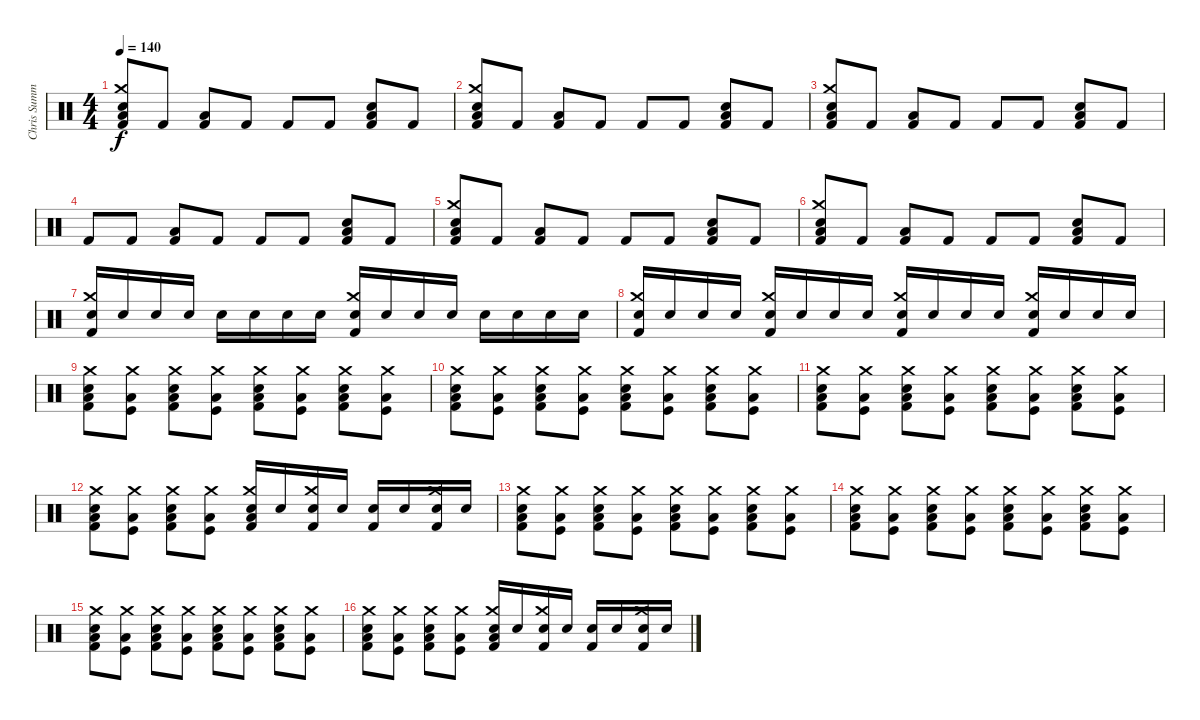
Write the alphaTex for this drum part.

\track ("Chris Summers" "Chris Summ") {instrument percussion}
\staff {score}
\articulation defaults
\ts (4 4)
\tempo 140
\clef neutral
\ks c
("Snare (hit) 2" "Crash medium (hit)" "Low Floor Tom (hit)" "Kick (hit) 2").8{dy f} "Kick (hit) 2".8 ("Low Floor Tom (hit)" "Kick (hit) 2").8 "Kick (hit) 2".8 "Kick (hit) 2".8 "Kick (hit) 2".8 ("Snare (hit) 2" "Low Floor Tom (hit)" "Kick (hit) 2").8 "Kick (hit) 2".8 |
("Snare (hit) 2" "Crash medium (hit)" "Low Floor Tom (hit)" "Kick (hit) 2").8 "Kick (hit) 2".8 ("Low Floor Tom (hit)" "Kick (hit) 2").8 "Kick (hit) 2".8 "Kick (hit) 2".8 "Kick (hit) 2".8 ("Snare (hit) 2" "Low Floor Tom (hit)" "Kick (hit) 2").8 "Kick (hit) 2".8 |
("Snare (hit) 2" "Crash medium (hit)" "Low Floor Tom (hit)" "Kick (hit) 2").8 "Kick (hit) 2".8 ("Low Floor Tom (hit)" "Kick (hit) 2").8 "Kick (hit) 2".8 "Kick (hit) 2".8 "Kick (hit) 2".8 ("Snare (hit) 2" "Low Floor Tom (hit)" "Kick (hit) 2").8 "Kick (hit) 2".8 |
"Kick (hit) 2".8 "Kick (hit) 2".8 ("Low Floor Tom (hit)" "Kick (hit) 2").8 "Kick (hit) 2".8 "Kick (hit) 2".8 "Kick (hit) 2".8 ("Snare (hit) 2" "Low Floor Tom (hit)" "Kick (hit) 2").8 "Kick (hit) 2".8 |
("Snare (hit) 2" "Crash medium (hit)" "Low Floor Tom (hit)" "Kick (hit) 2").8 "Kick (hit) 2".8 ("Low Floor Tom (hit)" "Kick (hit) 2").8 "Kick (hit) 2".8 "Kick (hit) 2".8 "Kick (hit) 2".8 ("Snare (hit) 2" "Low Floor Tom (hit)" "Kick (hit) 2").8 "Kick (hit) 2".8 |
("Snare (hit) 2" "Crash medium (hit)" "Low Floor Tom (hit)" "Kick (hit) 2").8 "Kick (hit) 2".8 ("Low Floor Tom (hit)" "Kick (hit) 2").8 "Kick (hit) 2".8 "Kick (hit) 2".8 "Kick (hit) 2".8 ("Snare (hit) 2" "Low Floor Tom (hit)" "Kick (hit) 2").8 "Kick (hit) 2".8 |
("Crash medium (hit)" "Snare (hit) 2" "Kick (hit) 2").16 "Snare (hit) 2".16 "Snare (hit) 2".16 "Snare (hit) 2".16 "Snare (hit) 2".16 "Snare (hit) 2".16 "Snare (hit) 2".16 "Snare (hit) 2".16 ("Crash medium (hit)" "Snare (hit) 2" "Kick (hit) 2").16 "Snare (hit) 2".16 "Snare (hit) 2".16 "Snare (hit) 2".16 "Snare (hit) 2".16 "Snare (hit) 2".16 "Snare (hit) 2".16 "Snare (hit) 2".16 |
("Crash medium (hit)" "Snare (hit) 2" "Kick (hit) 2").16 "Snare (hit) 2".16 "Snare (hit) 2".16 "Snare (hit) 2".16 ("Crash medium (hit)" "Snare (hit) 2" "Kick (hit) 2").16 "Snare (hit) 2".16 "Snare (hit) 2".16 "Snare (hit) 2".16 ("Crash medium (hit)" "Snare (hit) 2" "Kick (hit) 2").16 "Snare (hit) 2".16 "Snare (hit) 2".16 "Snare (hit) 2".16 ("Crash medium (hit)" "Snare (hit) 2" "Kick (hit) 2").16 "Snare (hit) 2".16 "Snare (hit) 2".16 "Snare (hit) 2".16 |
("Crash medium (hit)" "Snare (hit) 2" "Low Floor Tom (hit)" "Kick (hit) 2").8 ("Crash medium (hit)" "Low Floor Tom (hit)" "Kick (hit)").8 ("Crash medium (hit)" "Snare (hit) 2" "Low Floor Tom (hit)" "Kick (hit) 2").8 ("Crash medium (hit)" "Low Floor Tom (hit)" "Kick (hit)").8 ("Crash medium (hit)" "Snare (hit) 2" "Low Floor Tom (hit)" "Kick (hit) 2").8 ("Crash medium (hit)" "Low Floor Tom (hit)" "Kick (hit)").8 ("Crash medium (hit)" "Snare (hit) 2" "Low Floor Tom (hit)" "Kick (hit) 2").8 ("Crash medium (hit)" "Low Floor Tom (hit)" "Kick (hit)").8 |
("Crash medium (hit)" "Snare (hit) 2" "Low Floor Tom (hit)" "Kick (hit) 2").8 ("Crash medium (hit)" "Low Floor Tom (hit)" "Kick (hit)").8 ("Crash medium (hit)" "Snare (hit) 2" "Low Floor Tom (hit)" "Kick (hit) 2").8 ("Crash medium (hit)" "Low Floor Tom (hit)" "Kick (hit)").8 ("Crash medium (hit)" "Snare (hit) 2" "Low Floor Tom (hit)" "Kick (hit) 2").8 ("Crash medium (hit)" "Low Floor Tom (hit)" "Kick (hit)").8 ("Crash medium (hit)" "Snare (hit) 2" "Low Floor Tom (hit)" "Kick (hit) 2").8 ("Crash medium (hit)" "Low Floor Tom (hit)" "Kick (hit)").8 |
("Crash medium (hit)" "Snare (hit) 2" "Low Floor Tom (hit)" "Kick (hit) 2").8 ("Crash medium (hit)" "Low Floor Tom (hit)" "Kick (hit)").8 ("Crash medium (hit)" "Snare (hit) 2" "Low Floor Tom (hit)" "Kick (hit) 2").8 ("Crash medium (hit)" "Low Floor Tom (hit)" "Kick (hit)").8 ("Crash medium (hit)" "Snare (hit) 2" "Low Floor Tom (hit)" "Kick (hit) 2").8 ("Crash medium (hit)" "Low Floor Tom (hit)" "Kick (hit)").8 ("Crash medium (hit)" "Snare (hit) 2" "Low Floor Tom (hit)" "Kick (hit) 2").8 ("Crash medium (hit)" "Low Floor Tom (hit)" "Kick (hit)").8 |
("Crash medium (hit)" "Snare (hit) 2" "Low Floor Tom (hit)" "Kick (hit) 2").8 ("Crash medium (hit)" "Low Floor Tom (hit)" "Kick (hit)").8 ("Crash medium (hit)" "Snare (hit) 2" "Low Floor Tom (hit)" "Kick (hit) 2").8 ("Crash medium (hit)" "Low Floor Tom (hit)" "Kick (hit)").8 ("Crash medium (hit)" "Snare (hit) 2" "Low Floor Tom (hit)" "Kick (hit) 2").16 "Snare (hit) 2".16 ("Crash medium (hit)" "Snare (hit) 2" "Kick (hit) 2").16 "Snare (hit) 2".16 ("Snare (hit) 2" "Kick (hit) 2").16 "Snare (hit) 2".16 ("Crash medium (hit)" "Kick (hit) 2" "Snare (hit) 2").16 "Snare (hit) 2".16 |
("Crash medium (hit)" "Snare (hit) 2" "Low Floor Tom (hit)" "Kick (hit) 2").8 ("Crash medium (hit)" "Low Floor Tom (hit)" "Kick (hit)").8 ("Crash medium (hit)" "Snare (hit) 2" "Low Floor Tom (hit)" "Kick (hit) 2").8 ("Crash medium (hit)" "Low Floor Tom (hit)" "Kick (hit)").8 ("Crash medium (hit)" "Snare (hit) 2" "Low Floor Tom (hit)" "Kick (hit) 2").8 ("Crash medium (hit)" "Low Floor Tom (hit)" "Kick (hit)").8 ("Crash medium (hit)" "Snare (hit) 2" "Low Floor Tom (hit)" "Kick (hit) 2").8 ("Crash medium (hit)" "Low Floor Tom (hit)" "Kick (hit)").8 |
("Crash medium (hit)" "Snare (hit) 2" "Low Floor Tom (hit)" "Kick (hit) 2").8 ("Crash medium (hit)" "Low Floor Tom (hit)" "Kick (hit)").8 ("Crash medium (hit)" "Snare (hit) 2" "Low Floor Tom (hit)" "Kick (hit) 2").8 ("Crash medium (hit)" "Low Floor Tom (hit)" "Kick (hit)").8 ("Crash medium (hit)" "Snare (hit) 2" "Low Floor Tom (hit)" "Kick (hit) 2").8 ("Crash medium (hit)" "Low Floor Tom (hit)" "Kick (hit)").8 ("Crash medium (hit)" "Snare (hit) 2" "Low Floor Tom (hit)" "Kick (hit) 2").8 ("Crash medium (hit)" "Low Floor Tom (hit)" "Kick (hit)").8 |
("Crash medium (hit)" "Snare (hit) 2" "Low Floor Tom (hit)" "Kick (hit) 2").8 ("Crash medium (hit)" "Low Floor Tom (hit)" "Kick (hit)").8 ("Crash medium (hit)" "Snare (hit) 2" "Low Floor Tom (hit)" "Kick (hit) 2").8 ("Crash medium (hit)" "Low Floor Tom (hit)" "Kick (hit)").8 ("Crash medium (hit)" "Snare (hit) 2" "Low Floor Tom (hit)" "Kick (hit) 2").8 ("Crash medium (hit)" "Low Floor Tom (hit)" "Kick (hit)").8 ("Crash medium (hit)" "Snare (hit) 2" "Low Floor Tom (hit)" "Kick (hit) 2").8 ("Crash medium (hit)" "Low Floor Tom (hit)" "Kick (hit)").8 |
("Crash medium (hit)" "Snare (hit) 2" "Low Floor Tom (hit)" "Kick (hit) 2").8 ("Crash medium (hit)" "Low Floor Tom (hit)" "Kick (hit)").8 ("Crash medium (hit)" "Snare (hit) 2" "Low Floor Tom (hit)" "Kick (hit) 2").8 ("Crash medium (hit)" "Low Floor Tom (hit)" "Kick (hit)").8 ("Crash medium (hit)" "Snare (hit) 2" "Low Floor Tom (hit)" "Kick (hit) 2").16 "Snare (hit) 2".16 ("Crash medium (hit)" "Snare (hit) 2" "Kick (hit) 2").16 "Snare (hit) 2".16 ("Snare (hit) 2" "Kick (hit) 2").16 "Snare (hit) 2".16 ("Crash medium (hit)" "Kick (hit) 2" "Snare (hit) 2").16 "Snare (hit) 2".16
